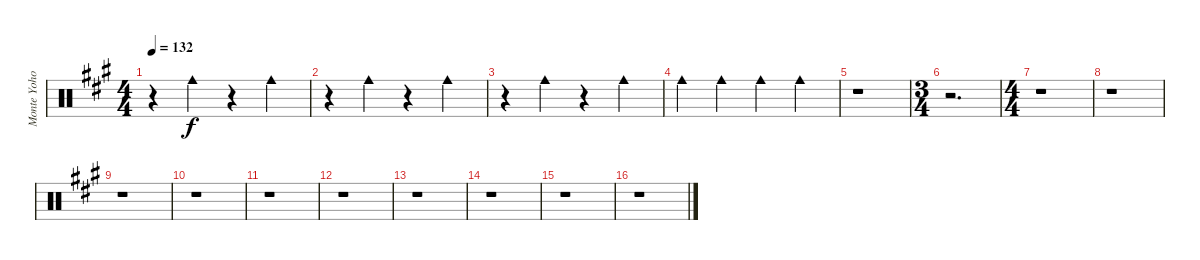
\track ("Monte Yoho Cow Bell" "Monte Yoho") {instrument percussion}
\staff {score}
\articulation defaults
\ts (4 4)
\tempo 132
\clef neutral
\ks a
r.4{dy f} "Cowbell medium (hit)".4 r.4 "Cowbell medium (hit)".4 |
r.4 "Cowbell medium (hit)".4 r.4 "Cowbell medium (hit)".4 |
r.4 "Cowbell medium (hit)".4 r.4 "Cowbell medium (hit)".4 |
"Cowbell medium (hit)".4 "Cowbell medium (hit)".4 "Cowbell medium (hit)".4 "Cowbell medium (hit)".4 |
r.1 |
\ts (3 4)
r.2{d} |
\ts (4 4)
r.1 |
r.1 |
r.1 |
r.1 |
r.1 |
r.1 |
r.1 |
r.1 |
r.1 |
r.1
